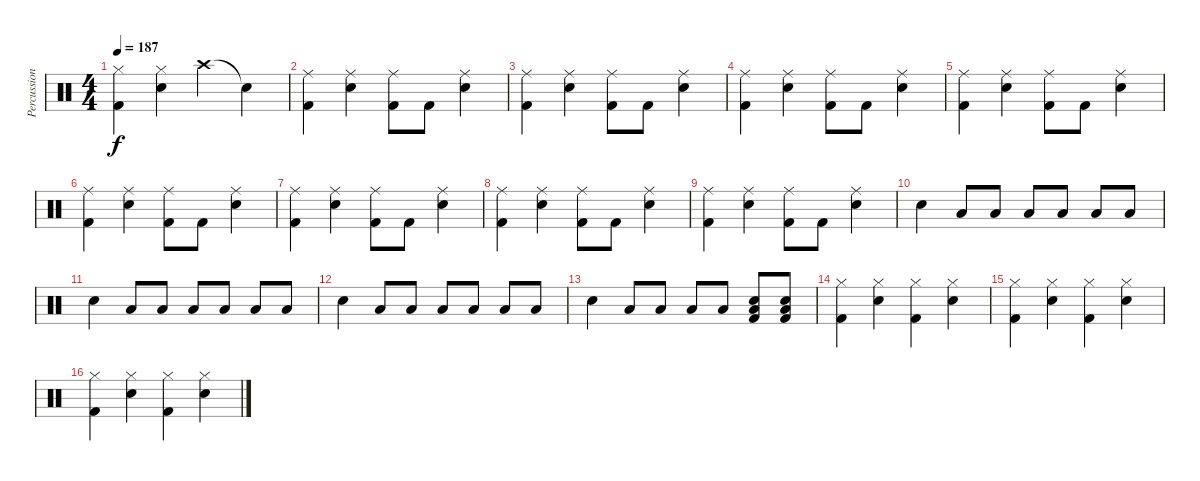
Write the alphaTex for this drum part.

\track ("Percussion" "Percussion") {instrument percussion}
\staff {score}
\articulation defaults
\ts (4 4)
\tempo 187
\clef neutral
\ks c
("Kick (hit) 2" "Hi-Hat (closed)").4{dy f} ("Snare (hit) 2" "Hi-Hat (closed)").4 "Crash high (hit)".4 "Snare (hit)"{t}.4 |
("Kick (hit) 2" "Ride (middle)").4 ("Snare (hit) 2" "Ride (middle)").4 ("Kick (hit) 2" "Ride (middle)").8 "Kick (hit) 2".8 ("Snare (hit) 2" "Ride (middle)").4 |
("Kick (hit) 2" "Ride (middle)").4 ("Snare (hit) 2" "Ride (middle)").4 ("Kick (hit) 2" "Ride (middle)").8 "Kick (hit) 2".8 ("Snare (hit) 2" "Ride (middle)").4 |
("Kick (hit) 2" "Ride (middle)").4 ("Snare (hit) 2" "Ride (middle)").4 ("Kick (hit) 2" "Ride (middle)").8 "Kick (hit) 2".8 ("Snare (hit) 2" "Ride (middle)").4 |
("Kick (hit) 2" "Ride (middle)").4 ("Snare (hit) 2" "Ride (middle)").4 ("Kick (hit) 2" "Ride (middle)").8 "Kick (hit) 2".8 ("Snare (hit) 2" "Ride (middle)").4 |
("Kick (hit) 2" "Ride (middle)").4 ("Snare (hit) 2" "Ride (middle)").4 ("Kick (hit) 2" "Ride (middle)").8 "Kick (hit) 2".8 ("Snare (hit) 2" "Ride (middle)").4 |
("Kick (hit) 2" "Ride (middle)").4 ("Snare (hit) 2" "Ride (middle)").4 ("Kick (hit) 2" "Ride (middle)").8 "Kick (hit) 2".8 ("Snare (hit) 2" "Ride (middle)").4 |
("Kick (hit) 2" "Ride (middle)").4 ("Snare (hit) 2" "Ride (middle)").4 ("Kick (hit) 2" "Ride (middle)").8 "Kick (hit) 2".8 ("Snare (hit) 2" "Ride (middle)").4 |
("Kick (hit) 2" "Ride (middle)").4 ("Snare (hit) 2" "Ride (middle)").4 ("Kick (hit) 2" "Ride (middle)").8 "Kick (hit) 2".8 ("Snare (hit) 2" "Ride (middle)").4 |
"Snare (hit) 2".4 "Low Tom (hit)".8 "Low Tom (hit)".8 "Low Tom (hit)".8 "Low Floor Tom (hit)".8 "Low Floor Tom (hit)".8 "Low Floor Tom (hit)".8 |
"Snare (hit) 2".4 "Low Tom (hit)".8 "Low Tom (hit)".8 "Low Tom (hit)".8 "Low Floor Tom (hit)".8 "Low Floor Tom (hit)".8 "Low Floor Tom (hit)".8 |
"Snare (hit) 2".4 "Low Tom (hit)".8 "Low Tom (hit)".8 "Low Tom (hit)".8 "Low Floor Tom (hit)".8 "Low Floor Tom (hit)".8 "Low Floor Tom (hit)".8 |
"Snare (hit) 2".4 "Low Tom (hit)".8 "Low Tom (hit)".8 "Low Tom (hit)".8 "Low Floor Tom (hit)".8 ("Snare (hit) 2" "Kick (hit) 2" "Low Floor Tom (hit)").8 ("Kick (hit) 2" "Snare (hit) 2" "Low Floor Tom (hit)").8 |
("Kick (hit) 2" "Hi-Hat (closed)").4 ("Snare (hit) 2" "Hi-Hat (closed)").4 ("Kick (hit) 2" "Hi-Hat (closed)").4 ("Snare (hit) 2" "Hi-Hat (closed)").4 |
("Kick (hit) 2" "Hi-Hat (closed)").4 ("Snare (hit) 2" "Hi-Hat (closed)").4 ("Kick (hit) 2" "Hi-Hat (closed)").4 ("Snare (hit) 2" "Hi-Hat (closed)").4 |
("Kick (hit) 2" "Hi-Hat (closed)").4 ("Snare (hit) 2" "Hi-Hat (closed)").4 ("Kick (hit) 2" "Hi-Hat (closed)").4 ("Snare (hit) 2" "Hi-Hat (closed)").4
